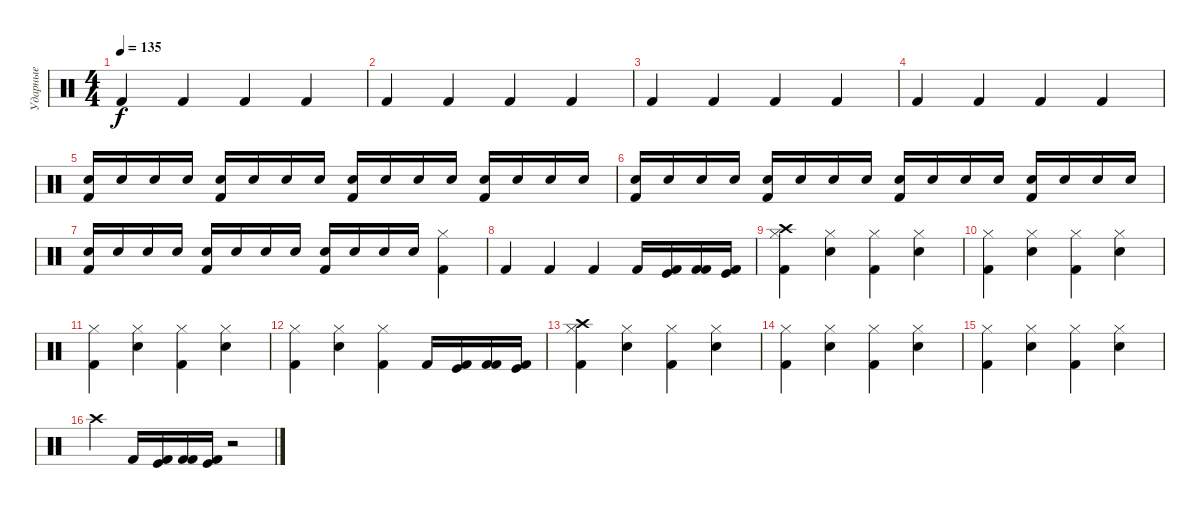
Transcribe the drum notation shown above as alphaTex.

\track ("Ударные" "Ударные") {instrument percussion}
\staff {score}
\articulation defaults
\ts (4 4)
\tempo 135
\clef neutral
\ks c "Kick (hit) 2".4{dy f} "Kick (hit) 2".4 "Kick (hit) 2".4 "Kick (hit) 2".4
|
"Kick (hit) 2".4 "Kick (hit) 2".4 "Kick (hit) 2".4 "Kick (hit) 2".4 |
"Kick (hit) 2".4 "Kick (hit) 2".4 "Kick (hit) 2".4 "Kick (hit) 2".4 |
"Kick (hit) 2".4 "Kick (hit) 2".4 "Kick (hit) 2".4 "Kick (hit) 2".4 |
("Snare (hit) 2" "Kick (hit) 2").16 "Snare (hit) 2".16 "Snare (hit) 2".16 "Snare (hit) 2".16 ("Snare (hit) 2" "Kick (hit) 2").16 "Snare (hit) 2".16 "Snare (hit) 2".16 "Snare (hit) 2".16 ("Snare (hit) 2" "Kick (hit) 2").16 "Snare (hit) 2".16 "Snare (hit) 2".16 "Snare (hit) 2".16 ("Snare (hit) 2" "Kick (hit) 2").16 "Snare (hit) 2".16 "Snare (hit) 2".16 "Snare (hit) 2".16 |
("Snare (hit) 2" "Kick (hit) 2").16 "Snare (hit) 2".16 "Snare (hit) 2".16 "Snare (hit) 2".16 ("Snare (hit) 2" "Kick (hit) 2").16 "Snare (hit) 2".16 "Snare (hit) 2".16 "Snare (hit) 2".16 ("Snare (hit) 2" "Kick (hit) 2").16 "Snare (hit) 2".16 "Snare (hit) 2".16 "Snare (hit) 2".16 ("Snare (hit) 2" "Kick (hit) 2").16 "Snare (hit) 2".16 "Snare (hit) 2".16 "Snare (hit) 2".16 |
("Snare (hit) 2" "Kick (hit) 2").16 "Snare (hit) 2".16 "Snare (hit) 2".16 "Snare (hit) 2".16 ("Snare (hit) 2" "Kick (hit) 2").16 "Snare (hit) 2".16 "Snare (hit) 2".16 "Snare (hit) 2".16 ("Snare (hit) 2" "Kick (hit) 2").16 "Snare (hit) 2".16 "Snare (hit) 2".16 "Snare (hit) 2".16 ("Hi-Hat (closed)" "Kick (hit) 2").4 |
"Kick (hit) 2".4 "Kick (hit) 2".4 "Kick (hit) 2".4 "Kick (hit) 2".16 ("Kick (hit)" "Kick (hit) 2").16 ("Kick (hit) 2" "Kick (hit) 2").16 ("Kick (hit)" "Kick (hit) 2").16 |
("Crash high (hit)" "Kick (hit) 2" "Hi-Hat (closed)").4 ("Snare (hit) 2" "Hi-Hat (closed)").4 ("Kick (hit) 2" "Hi-Hat (closed)").4 ("Snare (hit) 2" "Hi-Hat (closed)").4 |
("Kick (hit) 2" "Hi-Hat (closed)").4 ("Snare (hit) 2" "Hi-Hat (closed)").4 ("Kick (hit) 2" "Hi-Hat (closed)").4 ("Snare (hit) 2" "Hi-Hat (closed)").4 |
("Kick (hit) 2" "Hi-Hat (closed)").4 ("Snare (hit) 2" "Hi-Hat (closed)").4 ("Kick (hit) 2" "Hi-Hat (closed)").4 ("Snare (hit) 2" "Hi-Hat (closed)").4 |
("Kick (hit) 2" "Hi-Hat (closed)").4 ("Snare (hit) 2" "Hi-Hat (closed)").4 ("Kick (hit) 2" "Hi-Hat (closed)").4 "Kick (hit) 2".16 ("Kick (hit)" "Kick (hit) 2").16 ("Kick (hit) 2" "Kick (hit) 2").16 ("Kick (hit)" "Kick (hit) 2").16 |
("Crash high (hit)" "Kick (hit) 2" "Hi-Hat (closed)").4 ("Snare (hit) 2" "Hi-Hat (closed)").4 ("Kick (hit) 2" "Hi-Hat (closed)").4 ("Snare (hit) 2" "Hi-Hat (closed)").4 |
("Kick (hit) 2" "Hi-Hat (closed)").4 ("Snare (hit) 2" "Hi-Hat (closed)").4 ("Kick (hit) 2" "Hi-Hat (closed)").4 ("Snare (hit) 2" "Hi-Hat (closed)").4 |
("Kick (hit) 2" "Hi-Hat (closed)").4 ("Snare (hit) 2" "Hi-Hat (closed)").4 ("Kick (hit) 2" "Hi-Hat (closed)").4 ("Snare (hit) 2" "Hi-Hat (closed)").4 |
"Crash high (hit)".4 "Kick (hit) 2".16 ("Kick (hit)" "Kick (hit) 2").16 ("Kick (hit) 2" "Kick (hit) 2").16 ("Kick (hit)" "Kick (hit) 2").16 r.2
